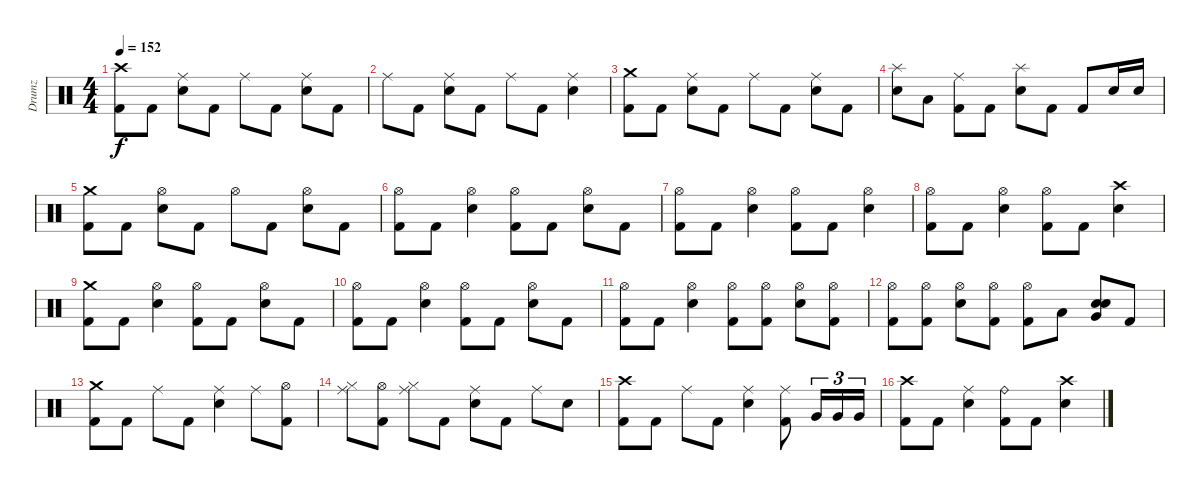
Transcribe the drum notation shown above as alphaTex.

\track ("Drumz" "Drumz") {instrument percussion}
\staff {score}
\articulation defaults
\ts (4 4)
\tempo 152
\clef neutral
\ks c
("Kick (hit) 2" "Crash high (hit)").8{dy f} "Kick (hit) 2".8 ("Snare (hit) 2" "Ride (middle)").8 "Kick (hit) 2".8 "Ride (middle)".8 "Kick (hit) 2".8 ("Snare (hit) 2" "Ride (middle)").8 "Kick (hit) 2".8 |
"Ride (middle)".8 "Kick (hit) 2".8 ("Snare (hit) 2" "Ride (middle)").8 "Kick (hit) 2".8 "Ride (middle)".8 "Kick (hit) 2".8 ("Snare (hit) 2" "Ride (middle)").4 |
("Kick (hit) 2" "Crash medium (hit)").8 "Kick (hit) 2".8 ("Snare (hit) 2" "Ride (middle)").8 "Kick (hit) 2".8 "Ride (middle)".8 "Kick (hit) 2".8 ("Snare (hit) 2" "Ride (middle)").8 "Kick (hit) 2".8 |
("Snare (hit) 2" "Splash (hit)").8 "Low Tom (hit)".8 ("Kick (hit) 2" "Ride (middle)").8 "Kick (hit) 2".8 ("Snare (hit) 2" "Splash (hit)").8 "Kick (hit) 2".8 "Kick (hit) 2".8 "Snare (hit) 2".16 "Snare (hit) 2".16 |
("Kick (hit) 2" "Crash medium (hit)").8 "Kick (hit) 2".8 ("Snare (hit) 2" "Hi-Hat (open)").8 "Kick (hit) 2".8 "Hi-Hat (open)".8 "Kick (hit) 2".8 ("Snare (hit) 2" "Hi-Hat (open)").8 "Kick (hit) 2".8 |
("Kick (hit) 2" "Hi-Hat (open)").8 "Kick (hit) 2".8 ("Snare (hit) 2" "Hi-Hat (open)").4 ("Kick (hit) 2" "Hi-Hat (open)").8 "Kick (hit) 2".8 ("Snare (hit) 2" "Hi-Hat (open)").8 "Kick (hit) 2".8 |
("Kick (hit) 2" "Hi-Hat (open)").8 "Kick (hit) 2".8 ("Snare (hit) 2" "Hi-Hat (open)").4 ("Kick (hit) 2" "Hi-Hat (open)").8 "Kick (hit) 2".8 ("Snare (hit) 2" "Hi-Hat (open)").4 |
("Kick (hit) 2" "Hi-Hat (open)").8 "Kick (hit) 2".8 ("Snare (hit) 2" "Hi-Hat (open)").4 ("Kick (hit) 2" "Hi-Hat (open)").8 "Kick (hit) 2".8 ("Snare (hit) 2" "Crash high (hit)").4 |
("Kick (hit) 2" "Crash medium (hit)").8 "Kick (hit) 2".8 ("Snare (hit) 2" "Hi-Hat (open)").4 ("Kick (hit) 2" "Hi-Hat (open)").8 "Kick (hit) 2".8 ("Snare (hit) 2" "Hi-Hat (open)").8 "Kick (hit) 2".8 |
("Kick (hit) 2" "Hi-Hat (open)").8 "Kick (hit) 2".8 ("Snare (hit) 2" "Hi-Hat (open)").4 ("Kick (hit) 2" "Hi-Hat (open)").8 "Kick (hit) 2".8 ("Snare (hit) 2" "Hi-Hat (open)").8 "Kick (hit) 2".8 |
("Kick (hit) 2" "Hi-Hat (open)").8 "Kick (hit) 2".8 ("Snare (hit) 2" "Hi-Hat (open)").4 ("Kick (hit) 2" "Hi-Hat (open)").8 ("Kick (hit) 2" "Hi-Hat (open)").8 ("Snare (hit) 2" "Hi-Hat (open)").8 ("Kick (hit) 2" "Hi-Hat (open)").8 |
("Kick (hit) 2" "Hi-Hat (open)").8 ("Kick (hit) 2" "Hi-Hat (open)").8 ("Snare (hit) 2" "Hi-Hat (open)").8 ("Kick (hit) 2" "Hi-Hat (open)").8 ("Kick (hit) 2" "Hi-Hat (open)").8 "Low Tom (hit)".8 ("Snare (hit) 2" "Snare (hit) 2" "Very Low Tom (hit)").8 "Kick (hit) 2".8 |
("Kick (hit) 2" "Crash medium (hit)").8 "Kick (hit) 2".8 "Ride (middle)".8 "Kick (hit) 2".8 ("Snare (hit) 2" "Ride (middle)").4 "Ride (middle)".8 ("Kick (hit) 2" "Hi-Hat (open)").8 |
("Hi-Hat (closed)" "Ride (middle)").8 ("Kick (hit) 2" "Hi-Hat (open)").8 ("Hi-Hat (closed)" "Ride (middle)").8 "Kick (hit) 2".8 ("Snare (hit) 2" "Ride (middle)").8 "Kick (hit) 2".8 "Ride (middle)".8 "Snare (hit) 2".8 |
("Kick (hit) 2" "Crash high (hit)").8 "Kick (hit) 2".8 "Ride (middle)".8 "Kick (hit) 2".8 ("Snare (hit) 2" "Ride (middle)").4 ("Kick (hit) 2" "Ride (middle)").8 "Very Low Tom (hit)".16{tu (3 2)} "Very Low Tom (hit)".16{tu (3 2)} "Very Low Tom (hit)".16{tu (3 2)} |
("Kick (hit) 2" "Crash high (hit)").8 "Kick (hit) 2".8 ("Snare (hit) 2" "Ride (middle)").4 ("Kick (hit) 2" "Ride (bell)").8 "Kick (hit) 2".8 ("Snare (hit) 2" "Crash high (hit)").4
